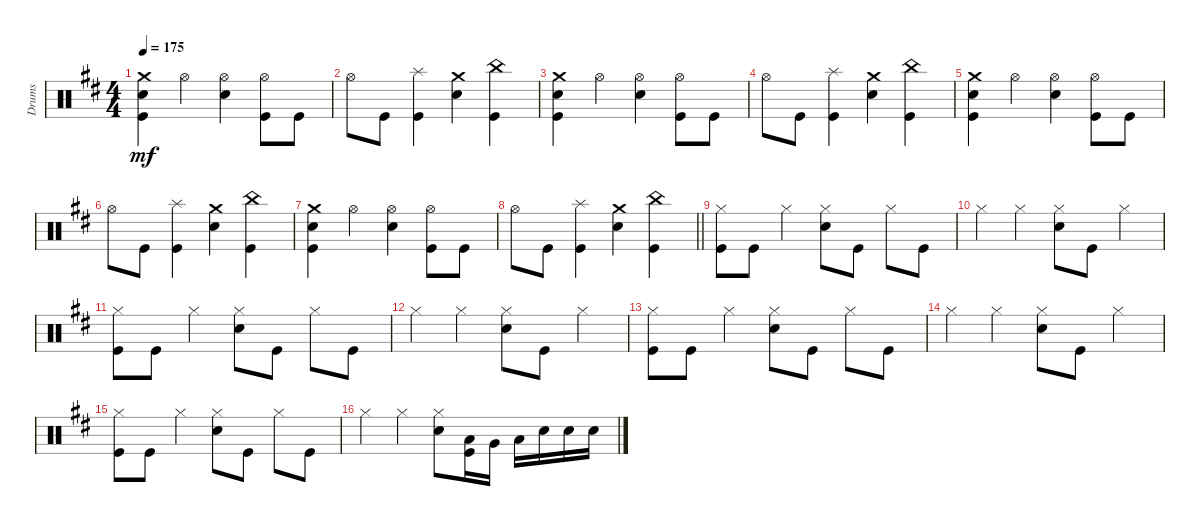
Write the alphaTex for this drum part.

\track ("Drums" "Drums") {instrument percussion}
\staff {score}
\articulation defaults
\ts (4 4)
\tempo 175
\clef neutral
\ks d
("Crash medium (hit)" "Kick (hit)" "Snare (hit) 2").4{dy mf} "Hi-Hat (open)".4 ("Hi-Hat (open)" "Snare (hit) 2").4 ("Kick (hit)" "Hi-Hat (open)").8 "Kick (hit)".8 |
"Hi-Hat (open)".8 "Kick (hit)".8 ("Kick (hit)" "Splash (hit)").4 ("Crash medium (hit)" "Snare (hit) 2").4 ("China (hit)" "Kick (hit)").4 |
("Crash medium (hit)" "Kick (hit)" "Snare (hit) 2").4 "Hi-Hat (open)".4 ("Hi-Hat (open)" "Snare (hit) 2").4 ("Kick (hit)" "Hi-Hat (open)").8 "Kick (hit)".8 |
"Hi-Hat (open)".8 "Kick (hit)".8 ("Kick (hit)" "Splash (hit)").4 ("Crash medium (hit)" "Snare (hit) 2").4 ("China (hit)" "Kick (hit)").4 |
("Crash medium (hit)" "Kick (hit)" "Snare (hit) 2").4 "Hi-Hat (open)".4 ("Hi-Hat (open)" "Snare (hit) 2").4 ("Kick (hit)" "Hi-Hat (open)").8 "Kick (hit)".8 |
"Hi-Hat (open)".8 "Kick (hit)".8 ("Kick (hit)" "Splash (hit)").4 ("Crash medium (hit)" "Snare (hit) 2").4 ("China (hit)" "Kick (hit)").4 |
("Crash medium (hit)" "Kick (hit)" "Snare (hit) 2").4 "Hi-Hat (open)".4 ("Hi-Hat (open)" "Snare (hit) 2").4 ("Kick (hit)" "Hi-Hat (open)").8 "Kick (hit)".8 |
\barLineRight lightlight "Hi-Hat (open)".8 "Kick (hit)".8
("Kick (hit)" "Splash (hit)").4 ("Crash medium (hit)" "Snare (hit) 2").4 ("China (hit)" "Kick (hit)").4 |
("Kick (hit)" "Hi-Hat (closed)").8 "Kick (hit)".8 "Hi-Hat (closed)".4 ("Hi-Hat (closed)" "Snare (hit) 2").8 "Kick (hit)".8 "Hi-Hat (closed)".8 "Kick (hit)".8 |
"Hi-Hat (closed)".4 "Hi-Hat (closed)".4 ("Hi-Hat (closed)" "Snare (hit) 2").8 "Kick (hit)".8 "Hi-Hat (closed)".4 |
("Kick (hit)" "Hi-Hat (closed)").8 "Kick (hit)".8 "Hi-Hat (closed)".4 ("Hi-Hat (closed)" "Snare (hit) 2").8 "Kick (hit)".8 "Hi-Hat (closed)".8 "Kick (hit)".8 |
"Hi-Hat (closed)".4 "Hi-Hat (closed)".4 ("Hi-Hat (closed)" "Snare (hit) 2").8 "Kick (hit)".8 "Hi-Hat (closed)".4 |
("Kick (hit)" "Hi-Hat (closed)").8 "Kick (hit)".8 "Hi-Hat (closed)".4 ("Hi-Hat (closed)" "Snare (hit) 2").8 "Kick (hit)".8 "Hi-Hat (closed)".8 "Kick (hit)".8 |
"Hi-Hat (closed)".4 "Hi-Hat (closed)".4 ("Hi-Hat (closed)" "Snare (hit) 2").8 "Kick (hit)".8 "Hi-Hat (closed)".4 |
("Kick (hit)" "Hi-Hat (closed)").8 "Kick (hit)".8 "Hi-Hat (closed)".4 ("Hi-Hat (closed)" "Snare (hit) 2").8 "Kick (hit)".8 "Hi-Hat (closed)".8 "Kick (hit)".8 |
"Hi-Hat (closed)".4 "Hi-Hat (closed)".4 ("Hi-Hat (closed)" "Snare (hit) 2").8 ("Kick (hit)" "Low Floor Tom (hit)").16 "Very Low Tom (hit)".16 "Low Floor Tom (hit)".16 "Snare (hit) 2".16 "Snare (hit) 2".16 "Snare (hit) 2".16
